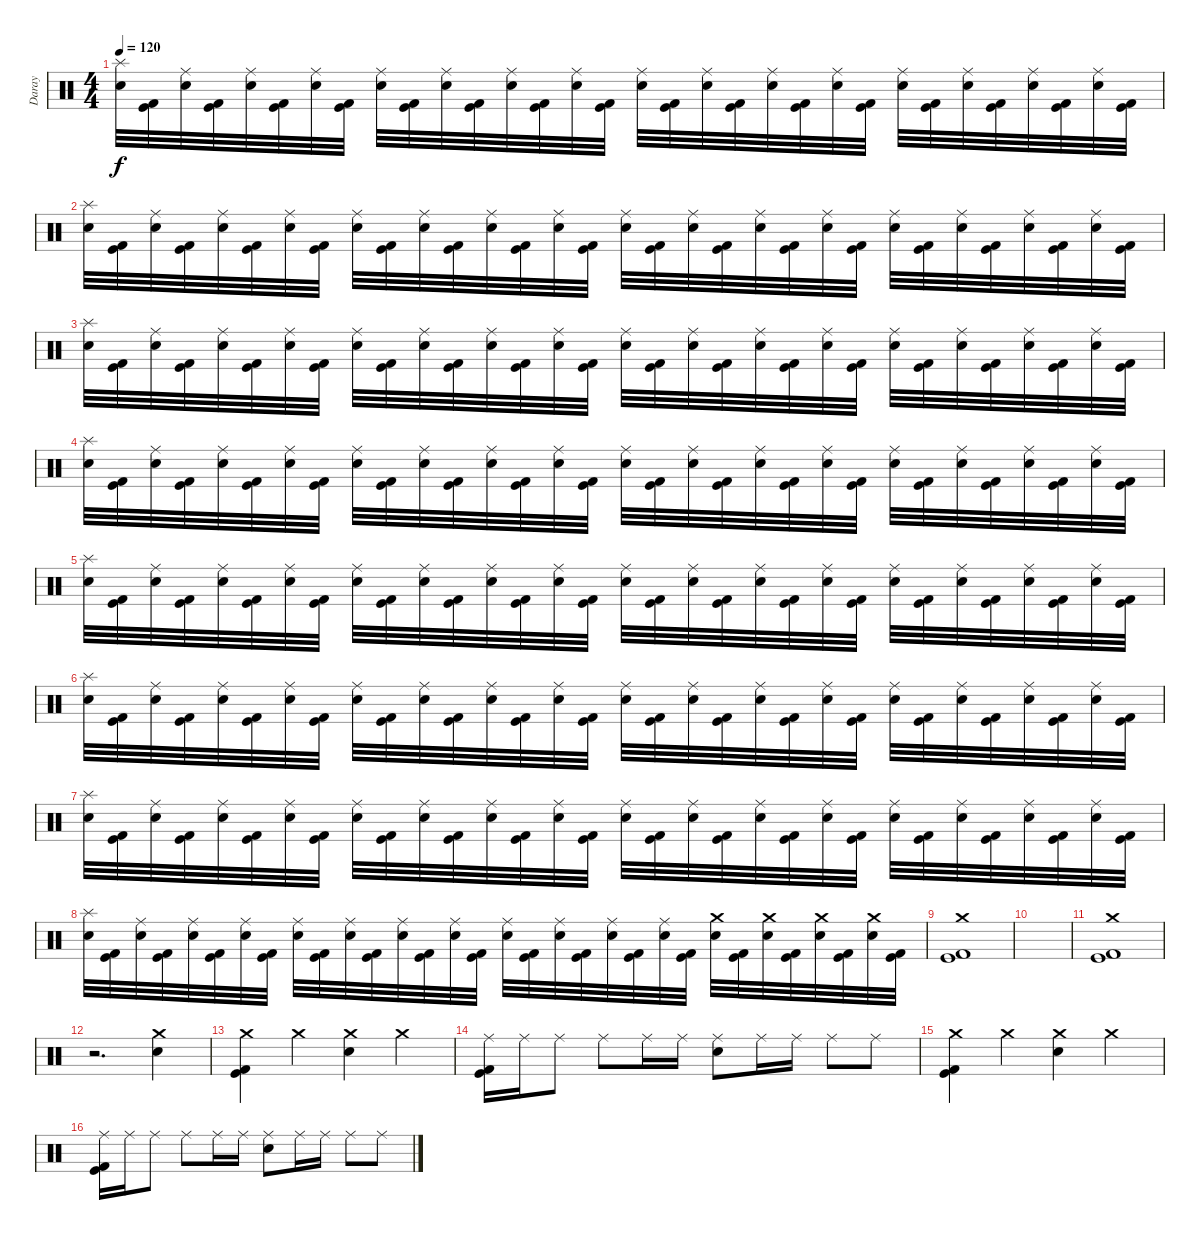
\track ("Daray" "Daray") {instrument percussion}
\staff {score}
\articulation defaults
\ts (4 4)
\tempo 120
\clef neutral
\ks c
("Splash (hit)" "Snare (hit) 2").32{dy f} ("Kick (hit) 2" "Kick (hit)").32 ("Ride (middle)" "Snare (hit) 2").32 ("Kick (hit) 2" "Kick (hit)").32 ("Ride (middle)" "Snare (hit) 2").32 ("Kick (hit) 2" "Kick (hit)").32 ("Ride (middle)" "Snare (hit) 2").32 ("Kick (hit) 2" "Kick (hit)").32 ("Ride (middle)" "Snare (hit) 2").32 ("Kick (hit) 2" "Kick (hit)").32 ("Ride (middle)" "Snare (hit) 2").32 ("Kick (hit) 2" "Kick (hit)").32 ("Ride (middle)" "Snare (hit) 2").32 ("Kick (hit) 2" "Kick (hit)").32 ("Ride (middle)" "Snare (hit) 2").32 ("Kick (hit) 2" "Kick (hit)").32 ("Ride (middle)" "Snare (hit) 2").32 ("Kick (hit) 2" "Kick (hit)").32 ("Ride (middle)" "Snare (hit) 2").32 ("Kick (hit) 2" "Kick (hit)").32 ("Ride (middle)" "Snare (hit) 2").32 ("Kick (hit) 2" "Kick (hit)").32 ("Ride (middle)" "Snare (hit) 2").32 ("Kick (hit) 2" "Kick (hit)").32 ("Ride (middle)" "Snare (hit) 2").32 ("Kick (hit) 2" "Kick (hit)").32 ("Ride (middle)" "Snare (hit) 2").32 ("Kick (hit) 2" "Kick (hit)").32 ("Ride (middle)" "Snare (hit) 2").32 ("Kick (hit) 2" "Kick (hit)").32 ("Ride (middle)" "Snare (hit) 2").32 ("Kick (hit) 2" "Kick (hit)").32 |
("Splash (hit)" "Snare (hit) 2").32 ("Kick (hit) 2" "Kick (hit)").32 ("Ride (middle)" "Snare (hit) 2").32 ("Kick (hit) 2" "Kick (hit)").32 ("Ride (middle)" "Snare (hit) 2").32 ("Kick (hit) 2" "Kick (hit)").32 ("Ride (middle)" "Snare (hit) 2").32 ("Kick (hit) 2" "Kick (hit)").32 ("Ride (middle)" "Snare (hit) 2").32 ("Kick (hit) 2" "Kick (hit)").32 ("Ride (middle)" "Snare (hit) 2").32 ("Kick (hit) 2" "Kick (hit)").32 ("Ride (middle)" "Snare (hit) 2").32 ("Kick (hit) 2" "Kick (hit)").32 ("Ride (middle)" "Snare (hit) 2").32 ("Kick (hit) 2" "Kick (hit)").32 ("Ride (middle)" "Snare (hit) 2").32 ("Kick (hit) 2" "Kick (hit)").32 ("Ride (middle)" "Snare (hit) 2").32 ("Kick (hit) 2" "Kick (hit)").32 ("Ride (middle)" "Snare (hit) 2").32 ("Kick (hit) 2" "Kick (hit)").32 ("Ride (middle)" "Snare (hit) 2").32 ("Kick (hit) 2" "Kick (hit)").32 ("Ride (middle)" "Snare (hit) 2").32 ("Kick (hit) 2" "Kick (hit)").32 ("Ride (middle)" "Snare (hit) 2").32 ("Kick (hit) 2" "Kick (hit)").32 ("Ride (middle)" "Snare (hit) 2").32 ("Kick (hit) 2" "Kick (hit)").32 ("Ride (middle)" "Snare (hit) 2").32 ("Kick (hit) 2" "Kick (hit)").32 |
("Splash (hit)" "Snare (hit) 2").32 ("Kick (hit) 2" "Kick (hit)").32 ("Ride (middle)" "Snare (hit) 2").32 ("Kick (hit) 2" "Kick (hit)").32 ("Ride (middle)" "Snare (hit) 2").32 ("Kick (hit) 2" "Kick (hit)").32 ("Ride (middle)" "Snare (hit) 2").32 ("Kick (hit) 2" "Kick (hit)").32 ("Ride (middle)" "Snare (hit) 2").32 ("Kick (hit) 2" "Kick (hit)").32 ("Ride (middle)" "Snare (hit) 2").32 ("Kick (hit) 2" "Kick (hit)").32 ("Ride (middle)" "Snare (hit) 2").32 ("Kick (hit) 2" "Kick (hit)").32 ("Ride (middle)" "Snare (hit) 2").32 ("Kick (hit) 2" "Kick (hit)").32 ("Ride (middle)" "Snare (hit) 2").32 ("Kick (hit) 2" "Kick (hit)").32 ("Ride (middle)" "Snare (hit) 2").32 ("Kick (hit) 2" "Kick (hit)").32 ("Ride (middle)" "Snare (hit) 2").32 ("Kick (hit) 2" "Kick (hit)").32 ("Ride (middle)" "Snare (hit) 2").32 ("Kick (hit) 2" "Kick (hit)").32 ("Ride (middle)" "Snare (hit) 2").32 ("Kick (hit) 2" "Kick (hit)").32 ("Ride (middle)" "Snare (hit) 2").32 ("Kick (hit) 2" "Kick (hit)").32 ("Ride (middle)" "Snare (hit) 2").32 ("Kick (hit) 2" "Kick (hit)").32 ("Ride (middle)" "Snare (hit) 2").32 ("Kick (hit) 2" "Kick (hit)").32 |
("Splash (hit)" "Snare (hit) 2").32 ("Kick (hit) 2" "Kick (hit)").32 ("Ride (middle)" "Snare (hit) 2").32 ("Kick (hit) 2" "Kick (hit)").32 ("Ride (middle)" "Snare (hit) 2").32 ("Kick (hit) 2" "Kick (hit)").32 ("Ride (middle)" "Snare (hit) 2").32 ("Kick (hit) 2" "Kick (hit)").32 ("Ride (middle)" "Snare (hit) 2").32 ("Kick (hit) 2" "Kick (hit)").32 ("Ride (middle)" "Snare (hit) 2").32 ("Kick (hit) 2" "Kick (hit)").32 ("Ride (middle)" "Snare (hit) 2").32 ("Kick (hit) 2" "Kick (hit)").32 ("Ride (middle)" "Snare (hit) 2").32 ("Kick (hit) 2" "Kick (hit)").32 ("Ride (middle)" "Snare (hit) 2").32 ("Kick (hit) 2" "Kick (hit)").32 ("Ride (middle)" "Snare (hit) 2").32 ("Kick (hit) 2" "Kick (hit)").32 ("Ride (middle)" "Snare (hit) 2").32 ("Kick (hit) 2" "Kick (hit)").32 ("Ride (middle)" "Snare (hit) 2").32 ("Kick (hit) 2" "Kick (hit)").32 ("Ride (middle)" "Snare (hit) 2").32 ("Kick (hit) 2" "Kick (hit)").32 ("Ride (middle)" "Snare (hit) 2").32 ("Kick (hit) 2" "Kick (hit)").32 ("Ride (middle)" "Snare (hit) 2").32 ("Kick (hit) 2" "Kick (hit)").32 ("Ride (middle)" "Snare (hit) 2").32 ("Kick (hit) 2" "Kick (hit)").32 |
("Splash (hit)" "Snare (hit) 2").32 ("Kick (hit) 2" "Kick (hit)").32 ("Ride (middle)" "Snare (hit) 2").32 ("Kick (hit) 2" "Kick (hit)").32 ("Ride (middle)" "Snare (hit) 2").32 ("Kick (hit) 2" "Kick (hit)").32 ("Ride (middle)" "Snare (hit) 2").32 ("Kick (hit) 2" "Kick (hit)").32 ("Ride (middle)" "Snare (hit) 2").32 ("Kick (hit) 2" "Kick (hit)").32 ("Ride (middle)" "Snare (hit) 2").32 ("Kick (hit) 2" "Kick (hit)").32 ("Ride (middle)" "Snare (hit) 2").32 ("Kick (hit) 2" "Kick (hit)").32 ("Ride (middle)" "Snare (hit) 2").32 ("Kick (hit) 2" "Kick (hit)").32 ("Ride (middle)" "Snare (hit) 2").32 ("Kick (hit) 2" "Kick (hit)").32 ("Ride (middle)" "Snare (hit) 2").32 ("Kick (hit) 2" "Kick (hit)").32 ("Ride (middle)" "Snare (hit) 2").32 ("Kick (hit) 2" "Kick (hit)").32 ("Ride (middle)" "Snare (hit) 2").32 ("Kick (hit) 2" "Kick (hit)").32 ("Ride (middle)" "Snare (hit) 2").32 ("Kick (hit) 2" "Kick (hit)").32 ("Ride (middle)" "Snare (hit) 2").32 ("Kick (hit) 2" "Kick (hit)").32 ("Ride (middle)" "Snare (hit) 2").32 ("Kick (hit) 2" "Kick (hit)").32 ("Ride (middle)" "Snare (hit) 2").32 ("Kick (hit) 2" "Kick (hit)").32 |
("Splash (hit)" "Snare (hit) 2").32 ("Kick (hit) 2" "Kick (hit)").32 ("Ride (middle)" "Snare (hit) 2").32 ("Kick (hit) 2" "Kick (hit)").32 ("Ride (middle)" "Snare (hit) 2").32 ("Kick (hit) 2" "Kick (hit)").32 ("Ride (middle)" "Snare (hit) 2").32 ("Kick (hit) 2" "Kick (hit)").32 ("Ride (middle)" "Snare (hit) 2").32 ("Kick (hit) 2" "Kick (hit)").32 ("Ride (middle)" "Snare (hit) 2").32 ("Kick (hit) 2" "Kick (hit)").32 ("Ride (middle)" "Snare (hit) 2").32 ("Kick (hit) 2" "Kick (hit)").32 ("Ride (middle)" "Snare (hit) 2").32 ("Kick (hit) 2" "Kick (hit)").32 ("Ride (middle)" "Snare (hit) 2").32 ("Kick (hit) 2" "Kick (hit)").32 ("Ride (middle)" "Snare (hit) 2").32 ("Kick (hit) 2" "Kick (hit)").32 ("Ride (middle)" "Snare (hit) 2").32 ("Kick (hit) 2" "Kick (hit)").32 ("Ride (middle)" "Snare (hit) 2").32 ("Kick (hit) 2" "Kick (hit)").32 ("Ride (middle)" "Snare (hit) 2").32 ("Kick (hit) 2" "Kick (hit)").32 ("Ride (middle)" "Snare (hit) 2").32 ("Kick (hit) 2" "Kick (hit)").32 ("Ride (middle)" "Snare (hit) 2").32 ("Kick (hit) 2" "Kick (hit)").32 ("Ride (middle)" "Snare (hit) 2").32 ("Kick (hit) 2" "Kick (hit)").32 |
("Splash (hit)" "Snare (hit) 2").32 ("Kick (hit) 2" "Kick (hit)").32 ("Ride (middle)" "Snare (hit) 2").32 ("Kick (hit) 2" "Kick (hit)").32 ("Ride (middle)" "Snare (hit) 2").32 ("Kick (hit) 2" "Kick (hit)").32 ("Ride (middle)" "Snare (hit) 2").32 ("Kick (hit) 2" "Kick (hit)").32 ("Ride (middle)" "Snare (hit) 2").32 ("Kick (hit) 2" "Kick (hit)").32 ("Ride (middle)" "Snare (hit) 2").32 ("Kick (hit) 2" "Kick (hit)").32 ("Ride (middle)" "Snare (hit) 2").32 ("Kick (hit) 2" "Kick (hit)").32 ("Ride (middle)" "Snare (hit) 2").32 ("Kick (hit) 2" "Kick (hit)").32 ("Ride (middle)" "Snare (hit) 2").32 ("Kick (hit) 2" "Kick (hit)").32 ("Ride (middle)" "Snare (hit) 2").32 ("Kick (hit) 2" "Kick (hit)").32 ("Ride (middle)" "Snare (hit) 2").32 ("Kick (hit) 2" "Kick (hit)").32 ("Ride (middle)" "Snare (hit) 2").32 ("Kick (hit) 2" "Kick (hit)").32 ("Ride (middle)" "Snare (hit) 2").32 ("Kick (hit) 2" "Kick (hit)").32 ("Ride (middle)" "Snare (hit) 2").32 ("Kick (hit) 2" "Kick (hit)").32 ("Ride (middle)" "Snare (hit) 2").32 ("Kick (hit) 2" "Kick (hit)").32 ("Ride (middle)" "Snare (hit) 2").32 ("Kick (hit) 2" "Kick (hit)").32 |
("Splash (hit)" "Snare (hit) 2").32 ("Kick (hit) 2" "Kick (hit)").32 ("Ride (middle)" "Snare (hit) 2").32 ("Kick (hit) 2" "Kick (hit)").32 ("Ride (middle)" "Snare (hit) 2").32 ("Kick (hit) 2" "Kick (hit)").32 ("Ride (middle)" "Snare (hit) 2").32 ("Kick (hit) 2" "Kick (hit)").32 ("Ride (middle)" "Snare (hit) 2").32 ("Kick (hit) 2" "Kick (hit)").32 ("Ride (middle)" "Snare (hit) 2").32 ("Kick (hit) 2" "Kick (hit)").32 ("Ride (middle)" "Snare (hit) 2").32 ("Kick (hit) 2" "Kick (hit)").32 ("Ride (middle)" "Snare (hit) 2").32 ("Kick (hit) 2" "Kick (hit)").32 ("Ride (middle)" "Snare (hit) 2").32 ("Kick (hit) 2" "Kick (hit)").32 ("Ride (middle)" "Snare (hit) 2").32 ("Kick (hit) 2" "Kick (hit)").32 ("Ride (middle)" "Snare (hit) 2").32 ("Kick (hit) 2" "Kick (hit)").32 ("Ride (middle)" "Snare (hit) 2").32 ("Kick (hit) 2" "Kick (hit)").32 ("Crash medium (hit)" "Snare (hit) 2").32 ("Kick (hit) 2" "Kick (hit)").32 ("Crash medium (hit)" "Snare (hit) 2").32 ("Kick (hit) 2" "Kick (hit)").32 ("Crash medium (hit)" "Snare (hit) 2").32 ("Kick (hit) 2" "Kick (hit)").32 ("Crash medium (hit)" "Snare (hit) 2").32 ("Kick (hit) 2" "Kick (hit)").32 |
("Crash medium (hit)" "Kick (hit) 2" "Kick (hit)").1 |
|
("Crash medium (hit)" "Kick (hit) 2" "Kick (hit)").1 |
r.2{d} ("Crash medium (hit)" "Snare (hit) 2").4 |
("Crash medium (hit)" "Kick (hit) 2" "Kick (hit)").4 "Crash medium (hit)".4 ("Crash medium (hit)" "Snare (hit) 2").4 "Crash medium (hit)".4 |
("Ride (middle)" "Kick (hit) 2" "Kick (hit)").16 "Ride (middle)".16 "Ride (middle)".8 "Ride (middle)".8 "Ride (middle)".16 "Ride (middle)".16 ("Ride (middle)" "Snare (hit) 2").8 "Ride (middle)".16 "Ride (middle)".16 "Ride (middle)".8 "Ride (middle)".8 |
("Crash medium (hit)" "Kick (hit) 2" "Kick (hit)").4 "Crash medium (hit)".4 ("Crash medium (hit)" "Snare (hit) 2").4 "Crash medium (hit)".4 |
("Ride (middle)" "Kick (hit) 2" "Kick (hit)").16 "Ride (middle)".16 "Ride (middle)".8 "Ride (middle)".8 "Ride (middle)".16 "Ride (middle)".16 ("Ride (middle)" "Snare (hit) 2").8 "Ride (middle)".16 "Ride (middle)".16 "Ride (middle)".8 "Ride (middle)".8
